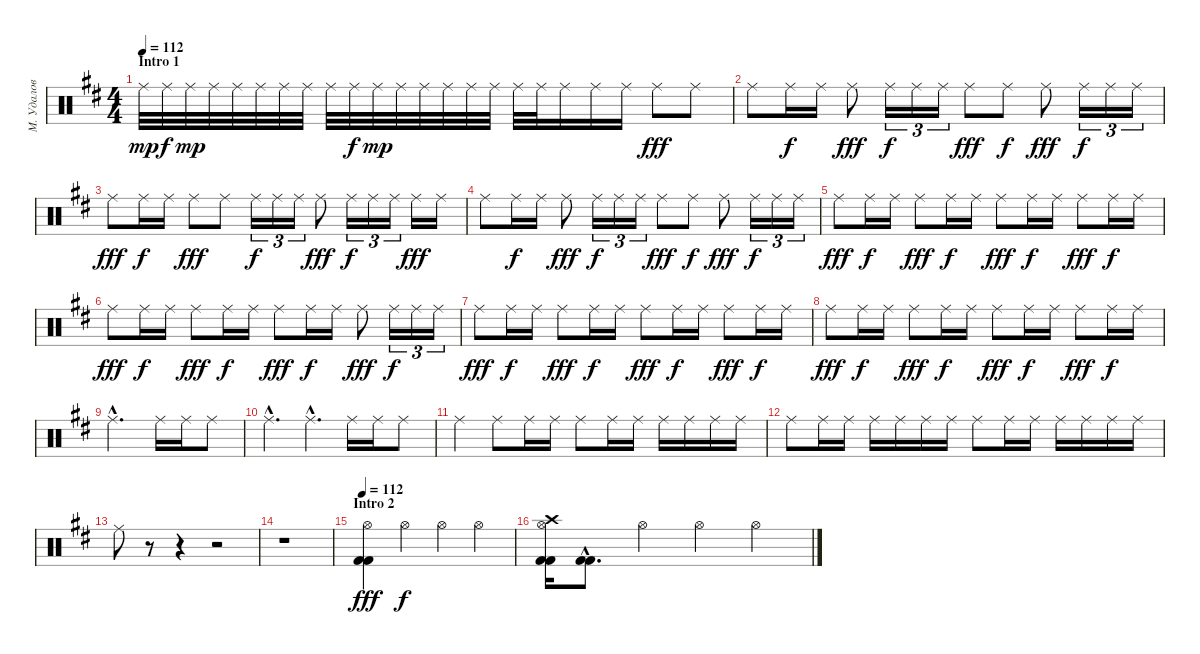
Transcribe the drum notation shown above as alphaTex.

\track ("М. Удалов" "М. Удалов") {instrument percussion}
\staff {score}
\articulation defaults
\ts (4 4)
\section ("" "Intro 1")
\tempo 112
\tempo 78
\tempo 112
\clef neutral
\ks d "Ride (middle)".32{dy mp} "Ride (middle)".32{dy f} "Ride (middle)".32{dy mp} "Ride (middle)".32 "Ride (middle)".32 "Ride (middle)".32 "Ride (middle)".32 "Ride (middle)".32 "Ride (middle)".32 "Ride (middle)".32{dy f} "Ride (middle)".32{dy mp} "Ride (middle)".32 "Ride (middle)".32 "Ride (middle)".32 "Ride (middle)".32 "Ride (middle)".32 "Ride (middle)".32 "Ride (middle)".32 "Ride (middle)".16 "Ride (middle)".16 "Ride (middle)".16 "Ride (middle)".8{dy fff} "Ride (middle)".8
|
"Ride (middle)".8 "Ride (middle)".16{dy f} "Ride (middle)".16 "Ride (middle)".8{dy fff} "Ride (middle)".16{tu (3 2) dy f} "Ride (middle)".16{tu (3 2)} "Ride (middle)".16{tu (3 2)} "Ride (middle)".8{dy fff} "Ride (middle)".8{dy f} "Ride (middle)".8{dy fff} "Ride (middle)".16{tu (3 2) dy f} "Ride (middle)".16{tu (3 2)} "Ride (middle)".16{tu (3 2)} |
"Ride (middle)".8{dy fff} "Ride (middle)".16{dy f} "Ride (middle)".16 "Ride (middle)".8{dy fff} "Ride (middle)".8 "Ride (middle)".16{tu (3 2) dy f} "Ride (middle)".16{tu (3 2)} "Ride (middle)".16{tu (3 2)} "Ride (middle)".8{dy fff} "Ride (middle)".16{tu (3 2) dy f} "Ride (middle)".16{tu (3 2)} "Ride (middle)".16{tu (3 2)} "Ride (middle)".16{dy fff} "Ride (middle)".16 |
"Ride (middle)".8 "Ride (middle)".16{dy f} "Ride (middle)".16 "Ride (middle)".8{dy fff} "Ride (middle)".16{tu (3 2) dy f} "Ride (middle)".16{tu (3 2)} "Ride (middle)".16{tu (3 2)} "Ride (middle)".8{dy fff} "Ride (middle)".8{dy f} "Ride (middle)".8{dy fff} "Ride (middle)".16{tu (3 2) dy f} "Ride (middle)".16{tu (3 2)} "Ride (middle)".16{tu (3 2)} |
"Ride (middle)".8{dy fff} "Ride (middle)".16{dy f} "Ride (middle)".16 "Ride (middle)".8{dy fff} "Ride (middle)".16{dy f} "Ride (middle)".16 "Ride (middle)".8{dy fff} "Ride (middle)".16{dy f} "Ride (middle)".16 "Ride (middle)".8{dy fff} "Ride (middle)".16{dy f} "Ride (middle)".16 |
"Ride (middle)".8{dy fff} "Ride (middle)".16{dy f} "Ride (middle)".16 "Ride (middle)".8{dy fff} "Ride (middle)".16{dy f} "Ride (middle)".16 "Ride (middle)".8{dy fff} "Ride (middle)".16{dy f} "Ride (middle)".16 "Ride (middle)".8{dy fff} "Ride (middle)".16{tu (3 2) dy f} "Ride (middle)".16{tu (3 2)} "Ride (middle)".16{tu (3 2)} |
"Ride (middle)".8{dy fff} "Ride (middle)".16{dy f} "Ride (middle)".16 "Ride (middle)".8{dy fff} "Ride (middle)".16{dy f} "Ride (middle)".16 "Ride (middle)".8{dy fff} "Ride (middle)".16{dy f} "Ride (middle)".16 "Ride (middle)".8{dy fff} "Ride (middle)".16{dy f} "Ride (middle)".16 |
"Ride (middle)".8{dy fff} "Ride (middle)".16{dy f} "Ride (middle)".16 "Ride (middle)".8{dy fff} "Ride (middle)".16{dy f} "Ride (middle)".16 "Ride (middle)".8{dy fff} "Ride (middle)".16{dy f} "Ride (middle)".16 "Ride (middle)".8{dy fff} "Ride (middle)".16{dy f} "Ride (middle)".16 |
"Ride (middle)"{hac}.2{d} "Ride (middle)".16 "Ride (middle)".16 "Ride (middle)".8 |
"Ride (middle)"{hac}.4{d} "Ride (middle)"{hac}.4{d} "Ride (middle)".16 "Ride (middle)".16 "Ride (middle)".8 |
"Ride (middle)".4 "Ride (middle)".8 "Ride (middle)".16 "Ride (middle)".16 "Ride (middle)".8 "Ride (middle)".16 "Ride (middle)".16 "Ride (middle)".16 "Ride (middle)".16 "Ride (middle)".16 "Ride (middle)".16 |
"Ride (middle)".8 "Ride (middle)".16 "Ride (middle)".16 "Ride (middle)".16 "Ride (middle)".16 "Ride (middle)".16 "Ride (middle)".16 "Ride (middle)".8 "Ride (middle)".16 "Ride (middle)".16 "Ride (middle)".16 "Ride (middle)".16 "Ride (middle)".16 "Ride (middle)".16 |
"Ride (middle)".8 r.8 r.4 r.2 |
r.1 |
\section ("" "Intro 2")
\tempo 112
("Hi-Hat (open)" "Kick (hit) 2" "Kick (hit) 2").4{dy fff} "Hi-Hat (open)".4{dy f} "Hi-Hat (open)".4 "Hi-Hat (open)".4 |
("Crash high (hit)" "Hi-Hat (open)" "Kick (hit) 2" "Kick (hit) 2").16 ("Kick (hit) 2"{hac} "Kick (hit) 2"{hac}).8{d} "Hi-Hat (open)".4 "Hi-Hat (open)".4 "Hi-Hat (open)".4
